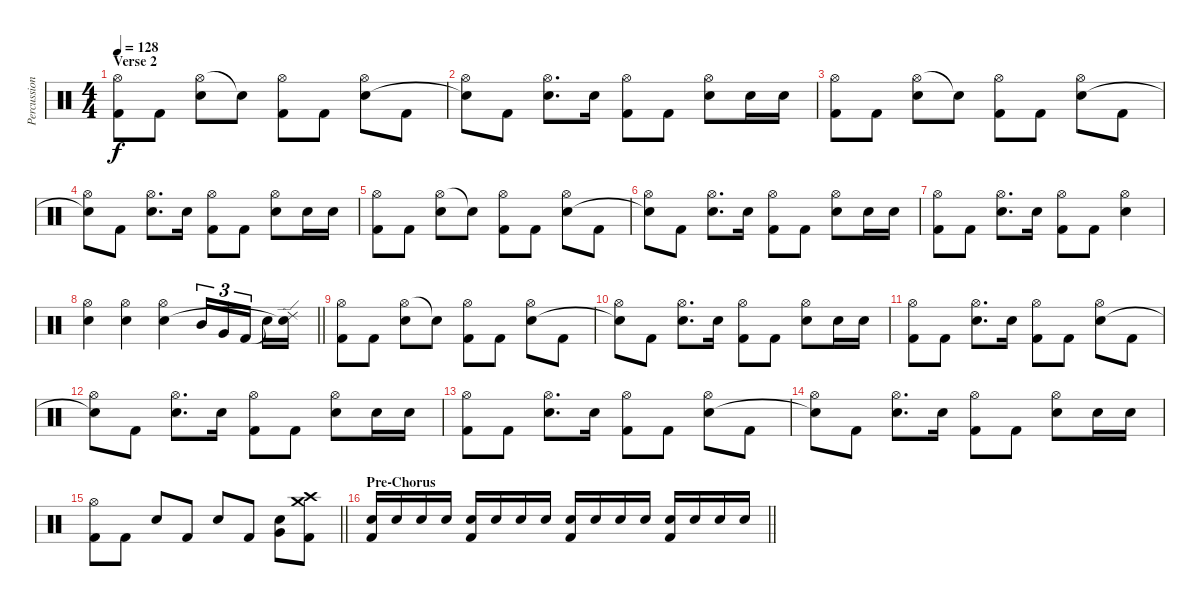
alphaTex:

\track ("Percussion" "Percussion") {instrument percussion}
\staff {score}
\articulation defaults
\ts (4 4)
\section ("" "Verse 2")
\tempo 128
\clef neutral
\ks c
("Hi-Hat (open)" "Kick (hit) 2").8{dy f} "Kick (hit) 2".8 ("Hi-Hat (open)" "Snare (hit) 2").8 "Snare (hit)"{t}.8 ("Hi-Hat (open)" "Kick (hit) 2").8 "Kick (hit) 2".8 ("Hi-Hat (open)" "Snare (hit) 2").8 "Kick (hit) 2".8 |
("Hi-Hat (open)" "Snare (hit)"{t}).8 "Kick (hit) 2".8 ("Hi-Hat (open)" "Snare (hit) 2").8{d} "Snare (hit) 2".16 ("Hi-Hat (open)" "Kick (hit) 2").8 "Kick (hit) 2".8 ("Hi-Hat (open)" "Snare (hit) 2").8 "Snare (hit) 2".16 "Snare (hit) 2".16 |
("Hi-Hat (open)" "Kick (hit) 2").8 "Kick (hit) 2".8 ("Hi-Hat (open)" "Snare (hit) 2").8 "Snare (hit)"{t}.8 ("Hi-Hat (open)" "Kick (hit) 2").8 "Kick (hit) 2".8 ("Hi-Hat (open)" "Snare (hit) 2").8 "Kick (hit) 2".8 |
("Hi-Hat (open)" "Snare (hit)"{t}).8 "Kick (hit) 2".8 ("Hi-Hat (open)" "Snare (hit) 2").8{d} "Snare (hit) 2".16 ("Hi-Hat (open)" "Kick (hit) 2").8 "Kick (hit) 2".8 ("Hi-Hat (open)" "Snare (hit) 2").8 "Snare (hit) 2".16 "Snare (hit) 2".16 |
("Hi-Hat (open)" "Kick (hit) 2").8 "Kick (hit) 2".8 ("Hi-Hat (open)" "Snare (hit) 2").8 "Snare (hit)"{t}.8 ("Hi-Hat (open)" "Kick (hit) 2").8 "Kick (hit) 2".8 ("Hi-Hat (open)" "Snare (hit) 2").8 "Kick (hit) 2".8 |
("Hi-Hat (open)" "Snare (hit)"{t}).8 "Kick (hit) 2".8 ("Hi-Hat (open)" "Snare (hit) 2").8{d} "Snare (hit) 2".16 ("Hi-Hat (open)" "Kick (hit) 2").8 "Kick (hit) 2".8 ("Hi-Hat (open)" "Snare (hit) 2").8 "Snare (hit) 2".16 "Snare (hit) 2".16 |
("Hi-Hat (open)" "Kick (hit) 2").8 "Kick (hit) 2".8 ("Hi-Hat (open)" "Snare (hit) 2").8{d} "Snare (hit) 2".16 ("Hi-Hat (open)" "Kick (hit) 2").8 "Kick (hit) 2".8 ("Hi-Hat (open)" "Snare (hit) 2").4 |
\barLineRight lightlight
("Hi-Hat (open)" "Snare (hit) 2").4 ("Hi-Hat (open)" "Snare (hit) 2").4 ("Hi-Hat (open)" "Snare (hit) 2").4 "Mid Tom (hit)".16{tu (3 2)} "Very Low Tom (hit)".16{tu (3 2)} "Kick (hit) 2".16{tu (3 2) beam splitsecondary} "Snare (hit)"{t}.16 ("Ride (edge) 2" "Snare (hit)"{t}).16 |
("Hi-Hat (open)" "Kick (hit) 2").8 "Kick (hit) 2".8 ("Hi-Hat (open)" "Snare (hit) 2").8 "Snare (hit)"{t}.8 ("Hi-Hat (open)" "Kick (hit) 2").8 "Kick (hit) 2".8 ("Hi-Hat (open)" "Snare (hit) 2").8 "Kick (hit) 2".8 |
("Hi-Hat (open)" "Snare (hit)"{t}).8 "Kick (hit) 2".8 ("Hi-Hat (open)" "Snare (hit) 2").8{d} "Snare (hit) 2".16 ("Hi-Hat (open)" "Kick (hit) 2").8 "Kick (hit) 2".8 ("Hi-Hat (open)" "Snare (hit) 2").8 "Snare (hit) 2".16 "Snare (hit) 2".16 |
("Hi-Hat (open)" "Kick (hit) 2").8 "Kick (hit) 2".8 ("Hi-Hat (open)" "Snare (hit) 2").8{d} "Snare (hit) 2".16 ("Hi-Hat (open)" "Kick (hit) 2").8 "Kick (hit) 2".8 ("Hi-Hat (open)" "Snare (hit) 2").8 "Kick (hit) 2".8 |
("Hi-Hat (open)" "Snare (hit)"{t}).8 "Kick (hit) 2".8 ("Hi-Hat (open)" "Snare (hit) 2").8{d} "Snare (hit) 2".16 ("Hi-Hat (open)" "Kick (hit) 2").8 "Kick (hit) 2".8 ("Hi-Hat (open)" "Snare (hit) 2").8 "Snare (hit) 2".16 "Snare (hit) 2".16 |
("Hi-Hat (open)" "Kick (hit) 2").8 "Kick (hit) 2".8 ("Hi-Hat (open)" "Snare (hit) 2").8{d} "Snare (hit) 2".16 ("Hi-Hat (open)" "Kick (hit) 2").8 "Kick (hit) 2".8 ("Hi-Hat (open)" "Snare (hit) 2").8 "Kick (hit) 2".8 |
("Hi-Hat (open)" "Snare (hit)"{t}).8 "Kick (hit) 2".8 ("Hi-Hat (open)" "Snare (hit) 2").8{d} "Snare (hit) 2".16 ("Hi-Hat (open)" "Kick (hit) 2").8 "Kick (hit) 2".8 ("Hi-Hat (open)" "Snare (hit) 2").8 "Snare (hit) 2".16 "Snare (hit) 2".16 |
\barLineRight lightlight
("Hi-Hat (open)" "Kick (hit) 2").8 "Kick (hit) 2".8 "Snare (hit) 2".8 "Kick (hit) 2".8 "Snare (hit) 2".8 "Kick (hit) 2".8 ("Snare (hit) 2" "Very Low Tom (hit)").8 ("Crash high (hit)" "Crash medium (hit)" "Kick (hit) 2").8 |
\section ("" "Pre-Chorus")
\barLineRight lightlight
("Snare (hit) 2" "Kick (hit) 2").16 "Snare (hit) 2".16 "Snare (hit) 2".16 "Snare (hit) 2".16 ("Snare (hit) 2" "Kick (hit) 2").16 "Snare (hit) 2".16 "Snare (hit) 2".16 "Snare (hit) 2".16 ("Snare (hit) 2" "Kick (hit) 2").16 "Snare (hit) 2".16 "Snare (hit) 2".16 "Snare (hit) 2".16 ("Snare (hit) 2" "Kick (hit) 2").16 "Snare (hit) 2".16 "Snare (hit) 2".16 "Snare (hit) 2".16
